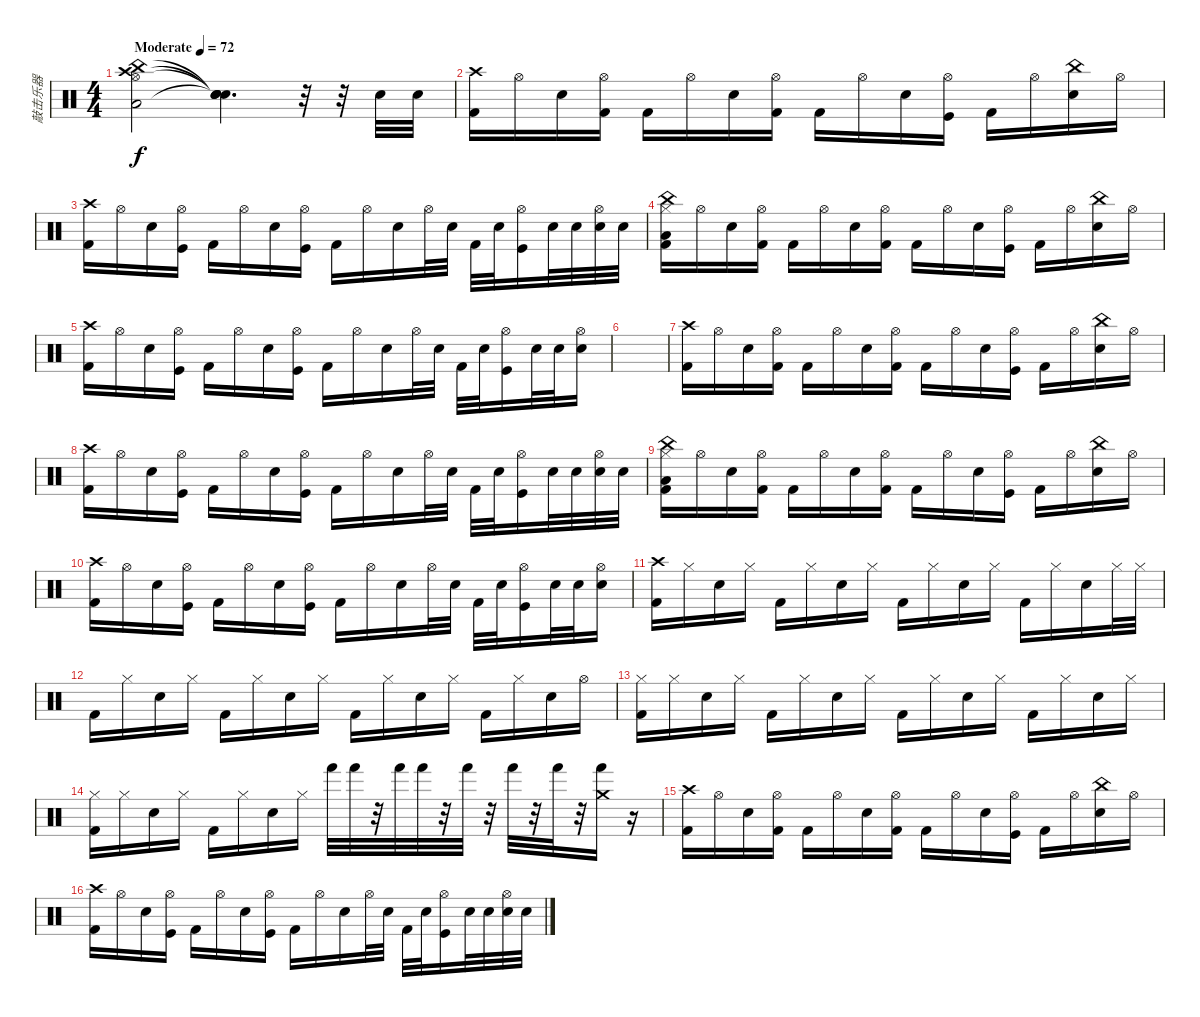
\track ("敲击乐器" "敲击乐器") {instrument percussion}
\staff {score}
\articulation defaults
\ts (4 4)
\tempo (72 "Moderate")
\clef neutral
\ks c
("Low Floor Tom (hit)" "Crash high (hit)" "China (hit)" "Hi-Hat (open)").2{dy f} ("Snare (hit)"{t} "Snare (hit)"{t} "Snare (hit)"{t} "Snare (hit)"{t}).4{d} r.32 r.32 "Snare (hit) 2".32 "Snare (hit) 2".32 |
("Crash high (hit)" "Kick (hit) 2").16 "Hi-Hat (open)".16 "Snare (hit) 2".16 ("Hi-Hat (open)" "Kick (hit) 2").16 "Kick (hit) 2".16 "Hi-Hat (open)".16 "Snare (hit) 2".16 ("Hi-Hat (open)" "Kick (hit) 2").16 "Kick (hit) 2".16 "Hi-Hat (open)".16 "Snare (hit) 2".16 ("Hi-Hat (open)" "Kick (hit)").16 "Kick (hit) 2".16 "Hi-Hat (open)".16 ("China (hit)" "Snare (hit) 2").16 "Hi-Hat (open)".16 |
("Crash high (hit)" "Kick (hit) 2").16 "Hi-Hat (open)".16 "Snare (hit) 2".16 ("Hi-Hat (open)" "Kick (hit)").16 "Kick (hit) 2".16 "Hi-Hat (open)".16 "Snare (hit) 2".16 ("Hi-Hat (open)" "Kick (hit)").16 "Kick (hit) 2".16 "Hi-Hat (open)".16 "Snare (hit) 2".16 "Hi-Hat (open)".32 "Snare (hit) 2".32 "Kick (hit) 2".32 "Snare (hit) 2".32 ("Hi-Hat (open)" "Kick (hit)").16 "Snare (hit) 2".32 "Snare (hit) 2".32 ("Hi-Hat (open)" "Snare (hit) 2").32 "Snare (hit) 2".32 |
("Low Floor Tom (hit)" "China (hit)" "Hi-Hat (closed)" "Kick (hit) 2").16 "Hi-Hat (open)".16 "Snare (hit) 2".16 ("Hi-Hat (open)" "Kick (hit) 2").16 "Kick (hit) 2".16 "Hi-Hat (open)".16 "Snare (hit) 2".16 ("Hi-Hat (open)" "Kick (hit) 2").16 "Kick (hit) 2".16 "Hi-Hat (open)".16 "Snare (hit) 2".16 ("Hi-Hat (open)" "Kick (hit)").16 "Kick (hit) 2".16 "Hi-Hat (open)".16 ("China (hit)" "Snare (hit) 2").16 "Hi-Hat (open)".16 |
("Crash high (hit)" "Kick (hit) 2").16 "Hi-Hat (open)".16 "Snare (hit) 2".16 ("Hi-Hat (open)" "Kick (hit)").16 "Kick (hit) 2".16 "Hi-Hat (open)".16 "Snare (hit) 2".16 ("Hi-Hat (open)" "Kick (hit)").16 "Kick (hit) 2".16 "Hi-Hat (open)".16 "Snare (hit) 2".16 "Hi-Hat (open)".32 "Snare (hit) 2".32 "Kick (hit) 2".32 "Snare (hit) 2".32 ("Hi-Hat (open)" "Kick (hit)").16 "Snare (hit) 2".32 "Snare (hit) 2".32 ("Hi-Hat (open)" "Snare (hit) 2").16 |
|
("Crash high (hit)" "Kick (hit) 2").16 "Hi-Hat (open)".16 "Snare (hit) 2".16 ("Hi-Hat (open)" "Kick (hit) 2").16 "Kick (hit) 2".16 "Hi-Hat (open)".16 "Snare (hit) 2".16 ("Hi-Hat (open)" "Kick (hit) 2").16 "Kick (hit) 2".16 "Hi-Hat (open)".16 "Snare (hit) 2".16 ("Hi-Hat (open)" "Kick (hit)").16 "Kick (hit) 2".16 "Hi-Hat (open)".16 ("China (hit)" "Snare (hit) 2").16 "Hi-Hat (open)".16 |
("Crash high (hit)" "Kick (hit) 2").16 "Hi-Hat (open)".16 "Snare (hit) 2".16 ("Hi-Hat (open)" "Kick (hit)").16 "Kick (hit) 2".16 "Hi-Hat (open)".16 "Snare (hit) 2".16 ("Hi-Hat (open)" "Kick (hit)").16 "Kick (hit) 2".16 "Hi-Hat (open)".16 "Snare (hit) 2".16 "Hi-Hat (open)".32 "Snare (hit) 2".32 "Kick (hit) 2".32 "Snare (hit) 2".32 ("Hi-Hat (open)" "Kick (hit)").16 "Snare (hit) 2".32 "Snare (hit) 2".32 ("Hi-Hat (open)" "Snare (hit) 2").32 "Snare (hit) 2".32 |
("Low Floor Tom (hit)" "China (hit)" "Hi-Hat (closed)" "Kick (hit) 2").16 "Hi-Hat (open)".16 "Snare (hit) 2".16 ("Hi-Hat (open)" "Kick (hit) 2").16 "Kick (hit) 2".16 "Hi-Hat (open)".16 "Snare (hit) 2".16 ("Hi-Hat (open)" "Kick (hit) 2").16 "Kick (hit) 2".16 "Hi-Hat (open)".16 "Snare (hit) 2".16 ("Hi-Hat (open)" "Kick (hit)").16 "Kick (hit) 2".16 "Hi-Hat (open)".16 ("China (hit)" "Snare (hit) 2").16 "Hi-Hat (open)".16 |
("Crash high (hit)" "Kick (hit) 2").16 "Hi-Hat (open)".16 "Snare (hit) 2".16 ("Hi-Hat (open)" "Kick (hit)").16 "Kick (hit) 2".16 "Hi-Hat (open)".16 "Snare (hit) 2".16 ("Hi-Hat (open)" "Kick (hit)").16 "Kick (hit) 2".16 "Hi-Hat (open)".16 "Snare (hit) 2".16 "Hi-Hat (open)".32 "Snare (hit) 2".32 "Kick (hit) 2".32 "Snare (hit) 2".32 ("Hi-Hat (open)" "Kick (hit)").16 "Snare (hit) 2".32 "Snare (hit) 2".32 ("Hi-Hat (open)" "Snare (hit) 2").16 |
("Crash high (hit)" "Kick (hit) 2").16 "Hi-Hat (closed)".16 "Snare (hit) 2".16 "Hi-Hat (closed)".16 "Kick (hit) 2".16 "Hi-Hat (closed)".16 "Snare (hit) 2".16 "Hi-Hat (closed)".16 "Kick (hit) 2".16 "Hi-Hat (closed)".16 "Snare (hit) 2".16 "Hi-Hat (closed)".16 "Kick (hit) 2".16 "Hi-Hat (closed)".16 "Snare (hit) 2".16 "Hi-Hat (closed)".32 "Hi-Hat (closed)".32 |
"Kick (hit) 2".16 "Hi-Hat (closed)".16 "Snare (hit) 2".16 "Hi-Hat (closed)".16 "Kick (hit) 2".16 "Hi-Hat (closed)".16 "Snare (hit) 2".16 "Hi-Hat (closed)".16 "Kick (hit) 2".16 "Hi-Hat (closed)".16 "Snare (hit) 2".16 "Hi-Hat (closed)".16 "Kick (hit) 2".16 "Hi-Hat (closed)".16 "Snare (hit) 2".16 "Hi-Hat (open)".16 |
("Hi-Hat (closed)" "Kick (hit) 2").16 "Hi-Hat (closed)".16 "Snare (hit) 2".16 "Hi-Hat (closed)".16 "Kick (hit) 2".16 "Hi-Hat (closed)".16 "Snare (hit) 2".16 "Hi-Hat (closed)".16 "Kick (hit) 2".16 "Hi-Hat (closed)".16 "Snare (hit) 2".16 "Hi-Hat (closed)".16 "Kick (hit) 2".16 "Hi-Hat (closed)".16 "Snare (hit) 2".16 "Hi-Hat (closed)".16 |
("Hi-Hat (closed)" "Kick (hit) 2").16 "Hi-Hat (closed)".16 "Snare (hit) 2".16 "Hi-Hat (closed)".16 "Kick (hit) 2".16 "Hi-Hat (closed)".16 "Snare (hit) 2".16 "Hi-Hat (closed)".16 "Hand (hit)".32 "Hand (hit)".32 r.32 "Hand (hit)".32 "Hand (hit)".32 r.32 "Hand (hit)".32 r.32 "Hand (hit)".32 r.32 "Hand (hit)".32 r.32 ("Crash medium (hit)" "Hand (hit)").16 r.16 |
("Crash high (hit)" "Kick (hit) 2").16 "Hi-Hat (open)".16 "Snare (hit) 2".16 ("Hi-Hat (open)" "Kick (hit) 2").16 "Kick (hit) 2".16 "Hi-Hat (open)".16 "Snare (hit) 2".16 ("Hi-Hat (open)" "Kick (hit) 2").16 "Kick (hit) 2".16 "Hi-Hat (open)".16 "Snare (hit) 2".16 ("Hi-Hat (open)" "Kick (hit)").16 "Kick (hit) 2".16 "Hi-Hat (open)".16 ("China (hit)" "Snare (hit) 2").16 "Hi-Hat (open)".16 |
("Crash high (hit)" "Kick (hit) 2").16 "Hi-Hat (open)".16 "Snare (hit) 2".16 ("Hi-Hat (open)" "Kick (hit)").16 "Kick (hit) 2".16 "Hi-Hat (open)".16 "Snare (hit) 2".16 ("Hi-Hat (open)" "Kick (hit)").16 "Kick (hit) 2".16 "Hi-Hat (open)".16 "Snare (hit) 2".16 "Hi-Hat (open)".32 "Snare (hit) 2".32 "Kick (hit) 2".32 "Snare (hit) 2".32 ("Hi-Hat (open)" "Kick (hit)").16 "Snare (hit) 2".32 "Snare (hit) 2".32 ("Hi-Hat (open)" "Snare (hit) 2").32 "Snare (hit) 2".32
